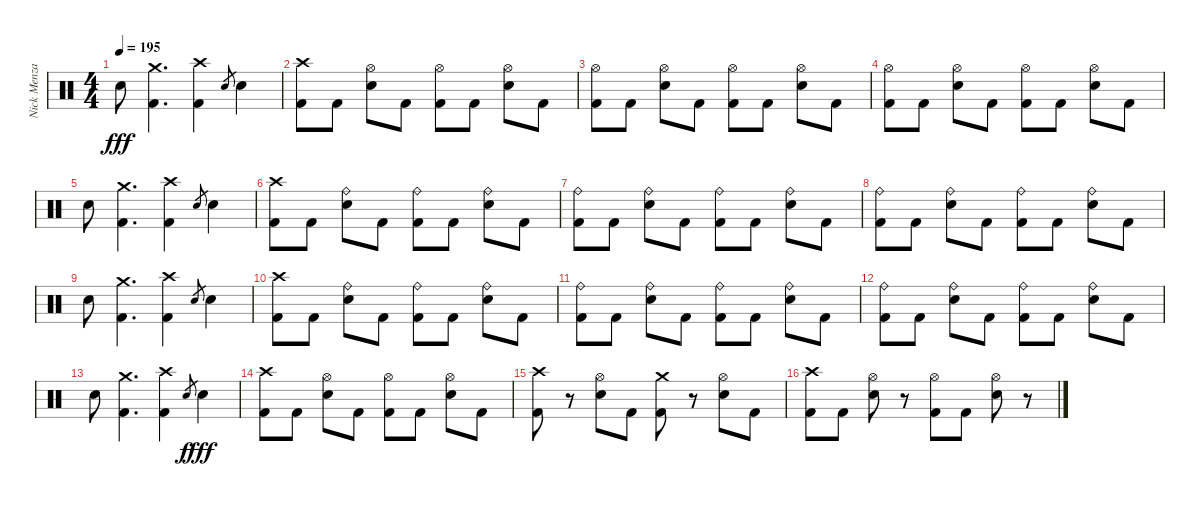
\track ("Nick Menza (Drums)" "Nick Menza") {instrument percussion}
\staff {score}
\articulation defaults
\ts (4 4)
\tempo 195
\clef neutral
\ks c "Electric Snare (hit)".8{dy fff}
("Kick (hit) 2" "Crash medium (hit)").4{d} ("Kick (hit) 2" "Crash high (hit)").4 "Electric Snare (hit)".8{gr} "Electric Snare (hit)".4 |
("Kick (hit) 2" "Crash high (hit)").8 "Kick (hit) 2".8 ("Electric Snare (hit)" "Hi-Hat (open)").8 "Kick (hit) 2".8 ("Kick (hit) 2" "Hi-Hat (open)").8 "Kick (hit) 2".8 ("Electric Snare (hit)" "Hi-Hat (open)").8 "Kick (hit) 2".8 |
("Kick (hit) 2" "Hi-Hat (open)").8 "Kick (hit) 2".8 ("Electric Snare (hit)" "Hi-Hat (open)").8 "Kick (hit) 2".8 ("Kick (hit) 2" "Hi-Hat (open)").8 "Kick (hit) 2".8 ("Electric Snare (hit)" "Hi-Hat (open)").8 "Kick (hit) 2".8 |
("Kick (hit) 2" "Hi-Hat (open)").8 "Kick (hit) 2".8 ("Electric Snare (hit)" "Hi-Hat (open)").8 "Kick (hit) 2".8 ("Kick (hit) 2" "Hi-Hat (open)").8 "Kick (hit) 2".8 ("Electric Snare (hit)" "Hi-Hat (open)").8 "Kick (hit) 2".8 |
"Electric Snare (hit)".8 ("Kick (hit) 2" "Crash medium (hit)").4{d} ("Kick (hit) 2" "Crash high (hit)").4 "Electric Snare (hit)".8{gr} "Electric Snare (hit)".4 |
("Kick (hit) 2" "Crash high (hit)").8 "Kick (hit) 2".8 ("Electric Snare (hit)" "Ride (bell)").8 "Kick (hit) 2".8 ("Kick (hit) 2" "Ride (bell)").8 "Kick (hit) 2".8 ("Electric Snare (hit)" "Ride (bell)").8 "Kick (hit) 2".8 |
("Kick (hit) 2" "Ride (bell)").8 "Kick (hit) 2".8 ("Electric Snare (hit)" "Ride (bell)").8 "Kick (hit) 2".8 ("Kick (hit) 2" "Ride (bell)").8 "Kick (hit) 2".8 ("Electric Snare (hit)" "Ride (bell)").8 "Kick (hit) 2".8 |
("Kick (hit) 2" "Ride (bell)").8 "Kick (hit) 2".8 ("Electric Snare (hit)" "Ride (bell)").8 "Kick (hit) 2".8 ("Kick (hit) 2" "Ride (bell)").8 "Kick (hit) 2".8 ("Electric Snare (hit)" "Ride (bell)").8 "Kick (hit) 2".8 |
"Electric Snare (hit)".8 ("Kick (hit) 2" "Crash medium (hit)").4{d} ("Kick (hit) 2" "Crash high (hit)").4 "Electric Snare (hit)".8{gr} "Electric Snare (hit)".4 |
("Kick (hit) 2" "Crash high (hit)").8 "Kick (hit) 2".8 ("Electric Snare (hit)" "Ride (bell)").8 "Kick (hit) 2".8 ("Kick (hit) 2" "Ride (bell)").8 "Kick (hit) 2".8 ("Electric Snare (hit)" "Ride (bell)").8 "Kick (hit) 2".8 |
("Kick (hit) 2" "Ride (bell)").8 "Kick (hit) 2".8 ("Electric Snare (hit)" "Ride (bell)").8 "Kick (hit) 2".8 ("Kick (hit) 2" "Ride (bell)").8 "Kick (hit) 2".8 ("Electric Snare (hit)" "Ride (bell)").8 "Kick (hit) 2".8 |
("Kick (hit) 2" "Ride (bell)").8 "Kick (hit) 2".8 ("Electric Snare (hit)" "Ride (bell)").8 "Kick (hit) 2".8 ("Kick (hit) 2" "Ride (bell)").8 "Kick (hit) 2".8 ("Electric Snare (hit)" "Ride (bell)").8 "Kick (hit) 2".8 |
"Electric Snare (hit)".8 ("Kick (hit) 2" "Crash medium (hit)").4{d} ("Kick (hit) 2" "Crash high (hit)").4 "Electric Snare (hit)".8{gr dy f} "Electric Snare (hit)".4{dy fff} |
("Kick (hit) 2" "Crash high (hit)").8 "Kick (hit) 2".8 ("Electric Snare (hit)" "Hi-Hat (open)").8 "Kick (hit) 2".8 ("Kick (hit) 2" "Hi-Hat (open)").8 "Kick (hit) 2".8 ("Electric Snare (hit)" "Hi-Hat (open)").8 "Kick (hit) 2".8 |
("Kick (hit) 2" "Crash high (hit)").8 r.8 ("Electric Snare (hit)" "Hi-Hat (open)").8 "Kick (hit) 2".8 ("Kick (hit) 2" "Crash medium (hit)").8 r.8 ("Electric Snare (hit)" "Hi-Hat (open)").8 "Kick (hit) 2".8 |
("Kick (hit) 2" "Crash high (hit)").8 "Kick (hit) 2".8 ("Electric Snare (hit)" "Hi-Hat (open)").8 r.8 ("Kick (hit) 2" "Hi-Hat (open)").8 "Kick (hit) 2".8 ("Electric Snare (hit)" "Hi-Hat (open)").8 r.8
